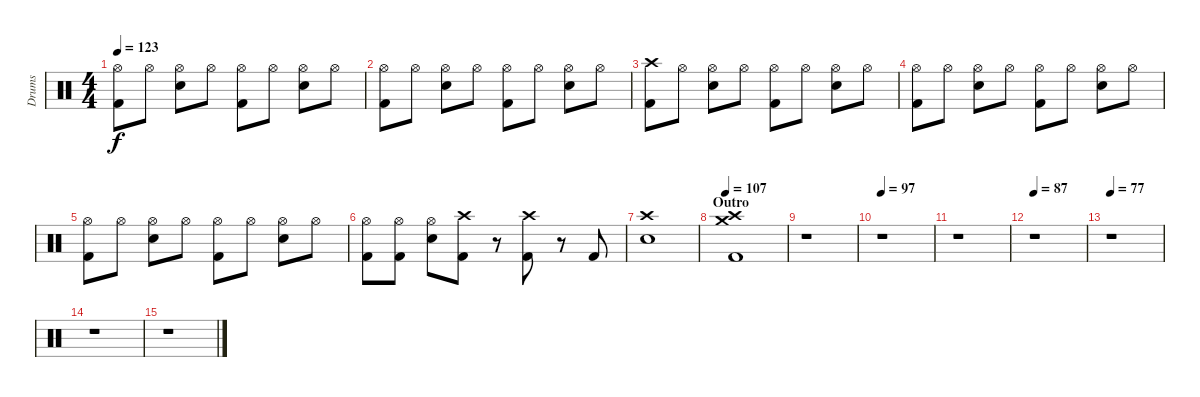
\track ("Drums" "Drums") {instrument percussion}
\staff {score}
\articulation defaults
\ts (4 4)
\tempo 123
\clef neutral
\ks c
("Hi-Hat (open)" "Kick (hit) 2").8{dy f} "Hi-Hat (open)".8 ("Hi-Hat (open)" "Electric Snare (hit)").8 "Hi-Hat (open)".8 ("Hi-Hat (open)" "Kick (hit) 2").8 "Hi-Hat (open)".8 ("Hi-Hat (open)" "Electric Snare (hit)").8 "Hi-Hat (open)".8 |
("Hi-Hat (open)" "Kick (hit) 2").8 "Hi-Hat (open)".8 ("Hi-Hat (open)" "Electric Snare (hit)").8 "Hi-Hat (open)".8 ("Hi-Hat (open)" "Kick (hit) 2").8 "Hi-Hat (open)".8 ("Hi-Hat (open)" "Electric Snare (hit)").8 "Hi-Hat (open)".8 |
("Crash high (hit)" "Kick (hit) 2").8 "Hi-Hat (open)".8 ("Hi-Hat (open)" "Electric Snare (hit)").8 "Hi-Hat (open)".8 ("Hi-Hat (open)" "Kick (hit) 2").8 "Hi-Hat (open)".8 ("Hi-Hat (open)" "Electric Snare (hit)").8 "Hi-Hat (open)".8 |
("Hi-Hat (open)" "Kick (hit) 2").8 "Hi-Hat (open)".8 ("Hi-Hat (open)" "Electric Snare (hit)").8 "Hi-Hat (open)".8 ("Hi-Hat (open)" "Kick (hit) 2").8 "Hi-Hat (open)".8 ("Hi-Hat (open)" "Electric Snare (hit)").8 "Hi-Hat (open)".8 |
("Hi-Hat (open)" "Kick (hit) 2").8 "Hi-Hat (open)".8 ("Hi-Hat (open)" "Electric Snare (hit)").8 "Hi-Hat (open)".8 ("Hi-Hat (open)" "Kick (hit) 2").8 "Hi-Hat (open)".8 ("Hi-Hat (open)" "Electric Snare (hit)").8 "Hi-Hat (open)".8 |
("Hi-Hat (open)" "Kick (hit) 2").8 ("Hi-Hat (open)" "Kick (hit) 2").8 ("Hi-Hat (open)" "Electric Snare (hit)").8 ("Crash high (hit)" "Kick (hit) 2").8 r.8 ("Crash high (hit)" "Kick (hit) 2").8 r.8 "Kick (hit) 2".8 |
("Crash high (hit)" "Electric Snare (hit)").1 |
\section ("" "Outro")
\tempo 107
("Crash high (hit)" "Crash medium (hit)" "Kick (hit) 2").1 |
r.1 |
\tempo 97
r.1 |
r.1 |
\tempo 87
r.1 |
\tempo 77
r.1 |
r.1 |
r.1
